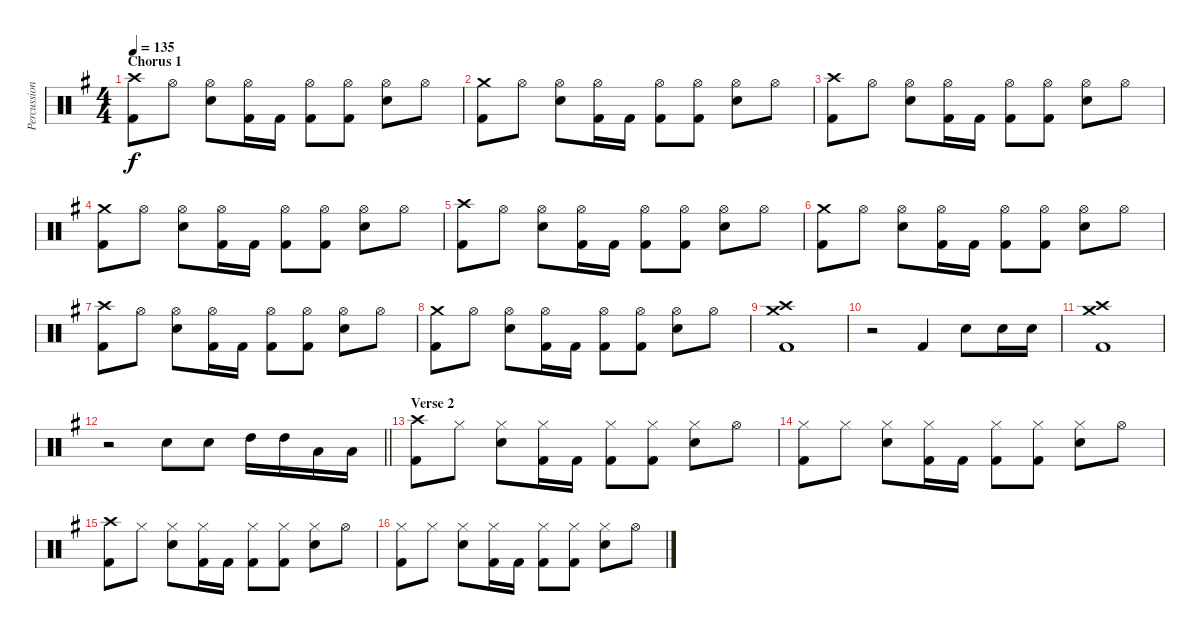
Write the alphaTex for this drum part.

\track ("Percussion" "Percussion") {instrument percussion}
\staff {score}
\articulation defaults
\ts (4 4)
\section ("" "Chorus 1")
\tempo 135
\clef neutral
\ks g
("Crash high (hit)" "Kick (hit) 2").8{dy f} "Hi-Hat (open)".8 ("Hi-Hat (open)" "Electric Snare (hit)").8 ("Hi-Hat (open)" "Kick (hit) 2").16 "Kick (hit) 2".16 ("Hi-Hat (open)" "Kick (hit) 2").8 ("Hi-Hat (open)" "Kick (hit) 2").8 ("Hi-Hat (open)" "Electric Snare (hit)").8 "Hi-Hat (open)".8 |
("Crash medium (hit)" "Kick (hit) 2").8 "Hi-Hat (open)".8 ("Hi-Hat (open)" "Electric Snare (hit)").8 ("Hi-Hat (open)" "Kick (hit) 2").16 "Kick (hit) 2".16 ("Hi-Hat (open)" "Kick (hit) 2").8 ("Hi-Hat (open)" "Kick (hit) 2").8 ("Hi-Hat (open)" "Electric Snare (hit)").8 "Hi-Hat (open)".8 |
("Crash high (hit)" "Kick (hit) 2").8 "Hi-Hat (open)".8 ("Hi-Hat (open)" "Electric Snare (hit)").8 ("Hi-Hat (open)" "Kick (hit) 2").16 "Kick (hit) 2".16 ("Hi-Hat (open)" "Kick (hit) 2").8 ("Hi-Hat (open)" "Kick (hit) 2").8 ("Hi-Hat (open)" "Electric Snare (hit)").8 "Hi-Hat (open)".8 |
("Crash medium (hit)" "Kick (hit) 2").8 "Hi-Hat (open)".8 ("Hi-Hat (open)" "Electric Snare (hit)").8 ("Hi-Hat (open)" "Kick (hit) 2").16 "Kick (hit) 2".16 ("Hi-Hat (open)" "Kick (hit) 2").8 ("Hi-Hat (open)" "Kick (hit) 2").8 ("Hi-Hat (open)" "Electric Snare (hit)").8 "Hi-Hat (open)".8 |
("Crash high (hit)" "Kick (hit) 2").8 "Hi-Hat (open)".8 ("Hi-Hat (open)" "Electric Snare (hit)").8 ("Hi-Hat (open)" "Kick (hit) 2").16 "Kick (hit) 2".16 ("Hi-Hat (open)" "Kick (hit) 2").8 ("Hi-Hat (open)" "Kick (hit) 2").8 ("Hi-Hat (open)" "Electric Snare (hit)").8 "Hi-Hat (open)".8 |
("Crash medium (hit)" "Kick (hit) 2").8 "Hi-Hat (open)".8 ("Hi-Hat (open)" "Electric Snare (hit)").8 ("Hi-Hat (open)" "Kick (hit) 2").16 "Kick (hit) 2".16 ("Hi-Hat (open)" "Kick (hit) 2").8 ("Hi-Hat (open)" "Kick (hit) 2").8 ("Hi-Hat (open)" "Electric Snare (hit)").8 "Hi-Hat (open)".8 |
("Crash high (hit)" "Kick (hit) 2").8 "Hi-Hat (open)".8 ("Hi-Hat (open)" "Electric Snare (hit)").8 ("Hi-Hat (open)" "Kick (hit) 2").16 "Kick (hit) 2".16 ("Hi-Hat (open)" "Kick (hit) 2").8 ("Hi-Hat (open)" "Kick (hit) 2").8 ("Hi-Hat (open)" "Electric Snare (hit)").8 "Hi-Hat (open)".8 |
("Crash medium (hit)" "Kick (hit) 2").8 "Hi-Hat (open)".8 ("Hi-Hat (open)" "Electric Snare (hit)").8 ("Hi-Hat (open)" "Kick (hit) 2").16 "Kick (hit) 2".16 ("Hi-Hat (open)" "Kick (hit) 2").8 ("Hi-Hat (open)" "Kick (hit) 2").8 ("Hi-Hat (open)" "Electric Snare (hit)").8 "Hi-Hat (open)".8 |
("Crash high (hit)" "Crash medium (hit)" "Kick (hit) 2").1 |
r.2 "Kick (hit) 2".4 "Electric Snare (hit)".8 "Electric Snare (hit)".16 "Electric Snare (hit)".16 |
("Crash high (hit)" "Crash medium (hit)" "Kick (hit) 2").1 |
\barLineRight lightlight
r.2 "Electric Snare (hit)".8 "Electric Snare (hit)".8 "High Tom (hit)".16 "High Tom (hit)".16 "Low Tom (hit)".16 "Low Tom (hit)".16 |
\section ("" "Verse 2")
("Crash high (hit)" "Kick (hit) 2").8 "Hi-Hat (closed)".8 ("Hi-Hat (closed)" "Electric Snare (hit)").8 ("Hi-Hat (closed)" "Kick (hit) 2").16 "Kick (hit) 2".16 ("Hi-Hat (closed)" "Kick (hit) 2").8 ("Hi-Hat (closed)" "Kick (hit) 2").8 ("Hi-Hat (closed)" "Electric Snare (hit)").8 "Hi-Hat (open)".8 |
("Hi-Hat (closed)" "Kick (hit) 2").8 "Hi-Hat (closed)".8 ("Hi-Hat (closed)" "Electric Snare (hit)").8 ("Hi-Hat (closed)" "Kick (hit) 2").16 "Kick (hit) 2".16 ("Hi-Hat (closed)" "Kick (hit) 2").8 ("Hi-Hat (closed)" "Kick (hit) 2").8 ("Hi-Hat (closed)" "Electric Snare (hit)").8 "Hi-Hat (open)".8 |
("Crash high (hit)" "Kick (hit) 2").8 "Hi-Hat (closed)".8 ("Hi-Hat (closed)" "Electric Snare (hit)").8 ("Hi-Hat (closed)" "Kick (hit) 2").16 "Kick (hit) 2".16 ("Hi-Hat (closed)" "Kick (hit) 2").8 ("Hi-Hat (closed)" "Kick (hit) 2").8 ("Hi-Hat (closed)" "Electric Snare (hit)").8 "Hi-Hat (open)".8 |
("Hi-Hat (closed)" "Kick (hit) 2").8 "Hi-Hat (closed)".8 ("Hi-Hat (closed)" "Electric Snare (hit)").8 ("Hi-Hat (closed)" "Kick (hit) 2").16 "Kick (hit) 2".16 ("Hi-Hat (closed)" "Kick (hit) 2").8 ("Hi-Hat (closed)" "Kick (hit) 2").8 ("Hi-Hat (closed)" "Electric Snare (hit)").8 "Hi-Hat (open)".8
